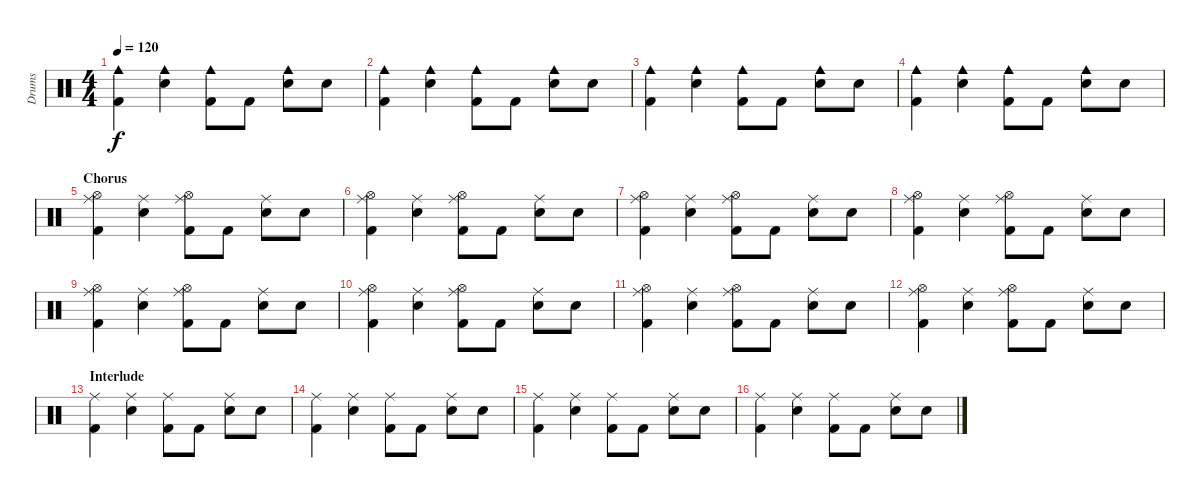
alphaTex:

\track ("Drums" "Drums") {instrument percussion}
\staff {score}
\articulation defaults
\ts (4 4)
\tempo 120
\clef neutral
\ks c
("Cowbell medium (hit)" "Kick (hit) 2").4{dy f} ("Cowbell medium (hit)" "Snare (hit) 2").4 ("Cowbell medium (hit)" "Kick (hit) 2").8 "Kick (hit) 2".8 ("Cowbell medium (hit)" "Snare (hit) 2").8 "Snare (hit) 2".8 |
("Cowbell medium (hit)" "Kick (hit) 2").4 ("Cowbell medium (hit)" "Snare (hit) 2").4 ("Cowbell medium (hit)" "Kick (hit) 2").8 "Kick (hit) 2".8 ("Cowbell medium (hit)" "Snare (hit) 2").8 "Snare (hit) 2".8 |
("Cowbell medium (hit)" "Kick (hit) 2").4 ("Cowbell medium (hit)" "Snare (hit) 2").4 ("Cowbell medium (hit)" "Kick (hit) 2").8 "Kick (hit) 2".8 ("Cowbell medium (hit)" "Snare (hit) 2").8 "Snare (hit) 2".8 |
("Cowbell medium (hit)" "Kick (hit) 2").4 ("Cowbell medium (hit)" "Snare (hit) 2").4 ("Cowbell medium (hit)" "Kick (hit) 2").8 "Kick (hit) 2".8 ("Cowbell medium (hit)" "Snare (hit) 2").8 "Snare (hit) 2".8 |
\section ("" "Chorus")
("Ride (middle)" "Kick (hit) 2" "Hi-Hat (open)").4 ("Ride (middle)" "Snare (hit) 2").4 ("Ride (middle)" "Kick (hit) 2" "Hi-Hat (open)").8 "Kick (hit) 2".8 ("Ride (middle)" "Snare (hit) 2").8 "Snare (hit) 2".8 |
("Ride (middle)" "Kick (hit) 2" "Hi-Hat (open)").4 ("Ride (middle)" "Snare (hit) 2").4 ("Ride (middle)" "Kick (hit) 2" "Hi-Hat (open)").8 "Kick (hit) 2".8 ("Ride (middle)" "Snare (hit) 2").8 "Snare (hit) 2".8 |
("Ride (middle)" "Kick (hit) 2" "Hi-Hat (open)").4 ("Ride (middle)" "Snare (hit) 2").4 ("Ride (middle)" "Kick (hit) 2" "Hi-Hat (open)").8 "Kick (hit) 2".8 ("Ride (middle)" "Snare (hit) 2").8 "Snare (hit) 2".8 |
("Ride (middle)" "Kick (hit) 2" "Hi-Hat (open)").4 ("Ride (middle)" "Snare (hit) 2").4 ("Ride (middle)" "Kick (hit) 2" "Hi-Hat (open)").8 "Kick (hit) 2".8 ("Ride (middle)" "Snare (hit) 2").8 "Snare (hit) 2".8 |
("Ride (middle)" "Kick (hit) 2" "Hi-Hat (open)").4 ("Ride (middle)" "Snare (hit) 2").4 ("Ride (middle)" "Kick (hit) 2" "Hi-Hat (open)").8 "Kick (hit) 2".8 ("Ride (middle)" "Snare (hit) 2").8 "Snare (hit) 2".8 |
("Ride (middle)" "Kick (hit) 2" "Hi-Hat (open)").4 ("Ride (middle)" "Snare (hit) 2").4 ("Ride (middle)" "Kick (hit) 2" "Hi-Hat (open)").8 "Kick (hit) 2".8 ("Ride (middle)" "Snare (hit) 2").8 "Snare (hit) 2".8 |
("Ride (middle)" "Kick (hit) 2" "Hi-Hat (open)").4 ("Ride (middle)" "Snare (hit) 2").4 ("Ride (middle)" "Kick (hit) 2" "Hi-Hat (open)").8 "Kick (hit) 2".8 ("Ride (middle)" "Snare (hit) 2").8 "Snare (hit) 2".8 |
("Ride (middle)" "Kick (hit) 2" "Hi-Hat (open)").4 ("Ride (middle)" "Snare (hit) 2").4 ("Ride (middle)" "Kick (hit) 2" "Hi-Hat (open)").8 "Kick (hit) 2".8 ("Ride (middle)" "Snare (hit) 2").8 "Snare (hit) 2".8 |
\section ("" "Interlude")
("Ride (middle)" "Kick (hit) 2").4 ("Ride (middle)" "Snare (hit) 2").4 ("Ride (middle)" "Kick (hit) 2").8 "Kick (hit) 2".8 ("Ride (middle)" "Snare (hit) 2").8 "Snare (hit) 2".8 |
("Ride (middle)" "Kick (hit) 2").4 ("Ride (middle)" "Snare (hit) 2").4 ("Ride (middle)" "Kick (hit) 2").8 "Kick (hit) 2".8 ("Ride (middle)" "Snare (hit) 2").8 "Snare (hit) 2".8 |
("Ride (middle)" "Kick (hit) 2").4 ("Ride (middle)" "Snare (hit) 2").4 ("Ride (middle)" "Kick (hit) 2").8 "Kick (hit) 2".8 ("Ride (middle)" "Snare (hit) 2").8 "Snare (hit) 2".8 |
("Ride (middle)" "Kick (hit) 2").4 ("Ride (middle)" "Snare (hit) 2").4 ("Ride (middle)" "Kick (hit) 2").8 "Kick (hit) 2".8 ("Ride (middle)" "Snare (hit) 2").8 "Snare (hit) 2".8
